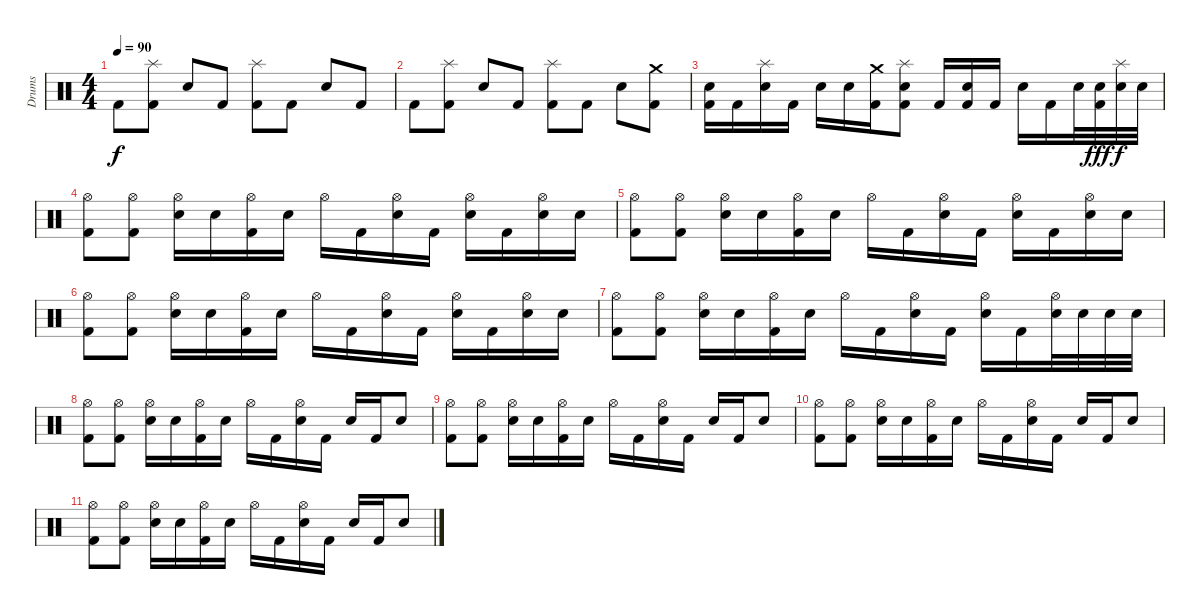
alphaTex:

\track ("Drums" "Drums") {instrument percussion}
\staff {score}
\articulation defaults
\ts (4 4)
\tempo 90
\clef neutral
\ks c "Kick (hit) 2".8{dy f}
("Splash (hit)" "Kick (hit) 2").8 "Electric Snare (hit)".8 "Kick (hit) 2".8 ("Splash (hit)" "Kick (hit) 2").8 "Kick (hit) 2".8 "Electric Snare (hit)".8 "Kick (hit) 2".8 |
"Kick (hit) 2".8 ("Splash (hit)" "Kick (hit) 2").8 "Electric Snare (hit)".8 "Kick (hit) 2".8 ("Splash (hit)" "Kick (hit) 2").8 "Kick (hit) 2".8 "Snare (hit) 2".8 ("Crash medium (hit)" "Kick (hit) 2").8 |
("Electric Snare (hit)" "Kick (hit) 2").16 "Kick (hit) 2".16 ("Splash (hit)" "Electric Snare (hit)").16 "Kick (hit) 2".16 "Electric Snare (hit)".16 "Electric Snare (hit)".16 ("Crash medium (hit)" "Kick (hit) 2").16 ("Splash (hit)" "Electric Snare (hit)" "Kick (hit) 2").8 "Kick (hit) 2".16 ("Electric Snare (hit)" "Kick (hit) 2").16 "Kick (hit) 2".16 "Electric Snare (hit)".16 "Kick (hit) 2".16 "Electric Snare (hit)".32 ("Electric Snare (hit)" "Kick (hit) 2").32{dy fff} ("Splash (hit)" "Electric Snare (hit)").32{dy f} "Electric Snare (hit)".32 |
("Hi-Hat (open)" "Kick (hit) 2").8 ("Hi-Hat (open)" "Kick (hit) 2").8 ("Hi-Hat (open)" "Electric Snare (hit)").16 "Electric Snare (hit)".16 ("Hi-Hat (open)" "Kick (hit) 2").16 "Electric Snare (hit)".16 "Hi-Hat (open)".16 "Kick (hit) 2".16 ("Hi-Hat (open)" "Electric Snare (hit)").16 "Kick (hit) 2".16 ("Hi-Hat (open)" "Electric Snare (hit)").16 "Kick (hit) 2".16 ("Hi-Hat (open)" "Electric Snare (hit)").16 "Electric Snare (hit)".16 |
("Hi-Hat (open)" "Kick (hit) 2").8 ("Hi-Hat (open)" "Kick (hit) 2").8 ("Hi-Hat (open)" "Electric Snare (hit)").16 "Electric Snare (hit)".16 ("Hi-Hat (open)" "Kick (hit) 2").16 "Electric Snare (hit)".16 "Hi-Hat (open)".16 "Kick (hit) 2".16 ("Hi-Hat (open)" "Electric Snare (hit)").16 "Kick (hit) 2".16 ("Hi-Hat (open)" "Electric Snare (hit)").16 "Kick (hit) 2".16 ("Hi-Hat (open)" "Electric Snare (hit)").16 "Electric Snare (hit)".16 |
("Hi-Hat (open)" "Kick (hit) 2").8 ("Hi-Hat (open)" "Kick (hit) 2").8 ("Hi-Hat (open)" "Electric Snare (hit)").16 "Electric Snare (hit)".16 ("Hi-Hat (open)" "Kick (hit) 2").16 "Electric Snare (hit)".16 "Hi-Hat (open)".16 "Kick (hit) 2".16 ("Hi-Hat (open)" "Electric Snare (hit)").16 "Kick (hit) 2".16 ("Hi-Hat (open)" "Electric Snare (hit)").16 "Kick (hit) 2".16 ("Hi-Hat (open)" "Electric Snare (hit)").16 "Electric Snare (hit)".16 |
("Hi-Hat (open)" "Kick (hit) 2").8 ("Hi-Hat (open)" "Kick (hit) 2").8 ("Hi-Hat (open)" "Electric Snare (hit)").16 "Electric Snare (hit)".16 ("Hi-Hat (open)" "Kick (hit) 2").16 "Electric Snare (hit)".16 "Hi-Hat (open)".16 "Kick (hit) 2".16 ("Hi-Hat (open)" "Electric Snare (hit)").16 "Kick (hit) 2".16 ("Hi-Hat (open)" "Electric Snare (hit)").16 "Kick (hit) 2".16 ("Hi-Hat (open)" "Electric Snare (hit)").32 "Electric Snare (hit)".32 "Electric Snare (hit)".32 "Electric Snare (hit)".32 |
("Hi-Hat (open)" "Kick (hit) 2").8 ("Hi-Hat (open)" "Kick (hit) 2").8 ("Hi-Hat (open)" "Electric Snare (hit)").16 "Electric Snare (hit)".16 ("Hi-Hat (open)" "Kick (hit) 2").16 "Electric Snare (hit)".16 "Hi-Hat (open)".16 "Kick (hit) 2".16 ("Hi-Hat (open)" "Electric Snare (hit)").16 "Kick (hit) 2".16 "Electric Snare (hit)".16 "Kick (hit) 2".16 "Electric Snare (hit)".8 |
("Hi-Hat (open)" "Kick (hit) 2").8 ("Hi-Hat (open)" "Kick (hit) 2").8 ("Hi-Hat (open)" "Electric Snare (hit)").16 "Electric Snare (hit)".16 ("Hi-Hat (open)" "Kick (hit) 2").16 "Electric Snare (hit)".16 "Hi-Hat (open)".16 "Kick (hit) 2".16 ("Hi-Hat (open)" "Electric Snare (hit)").16 "Kick (hit) 2".16 "Electric Snare (hit)".16 "Kick (hit) 2".16 "Electric Snare (hit)".8 |
("Hi-Hat (open)" "Kick (hit) 2").8 ("Hi-Hat (open)" "Kick (hit) 2").8 ("Hi-Hat (open)" "Electric Snare (hit)").16 "Electric Snare (hit)".16 ("Hi-Hat (open)" "Kick (hit) 2").16 "Electric Snare (hit)".16 "Hi-Hat (open)".16 "Kick (hit) 2".16 ("Hi-Hat (open)" "Electric Snare (hit)").16 "Kick (hit) 2".16 "Electric Snare (hit)".16 "Kick (hit) 2".16 "Electric Snare (hit)".8 |
("Hi-Hat (open)" "Kick (hit) 2").8 ("Hi-Hat (open)" "Kick (hit) 2").8 ("Hi-Hat (open)" "Electric Snare (hit)").16 "Electric Snare (hit)".16 ("Hi-Hat (open)" "Kick (hit) 2").16 "Electric Snare (hit)".16 "Hi-Hat (open)".16 "Kick (hit) 2".16 ("Hi-Hat (open)" "Electric Snare (hit)").16 "Kick (hit) 2".16 "Electric Snare (hit)".16 "Kick (hit) 2".16 "Snare (hit) 2".8
